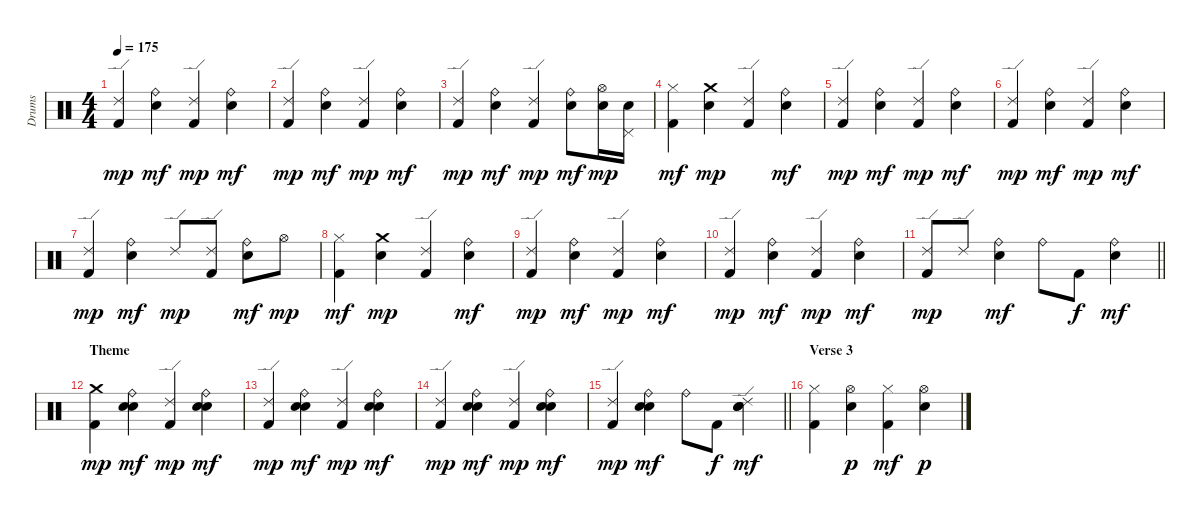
\track ("Drums" "Drums") {instrument percussion}
\staff {score}
\articulation defaults
\ts (4 4)
\tempo 175
\clef neutral
\ks c
("Ride (edge) 2" "Kick (hit) 2").4{dy mp} ("Ride (bell)" "Electric Snare (hit)").4{dy mf} ("Ride (edge) 2" "Kick (hit) 2").4{dy mp} ("Ride (bell)" "Electric Snare (hit)").4{dy mf} |
("Ride (edge) 2" "Kick (hit) 2").4{dy mp} ("Ride (bell)" "Electric Snare (hit)").4{dy mf} ("Ride (edge) 2" "Kick (hit) 2").4{dy mp} ("Ride (bell)" "Electric Snare (hit)").4{dy mf} |
("Ride (edge) 2" "Kick (hit) 2").4{dy mp} ("Ride (bell)" "Electric Snare (hit)").4{dy mf} ("Ride (edge) 2" "Kick (hit) 2").4{dy mp} ("Ride (bell)" "Electric Snare (hit)").8{dy mf} ("Hi-Hat (open)" "Electric Snare (hit)").16{dy mp} ("Pedal Hi-Hat (hit)" "Electric Snare (hit)").16 |
("Hi-Hat (closed)" "Kick (hit) 2").4{dy mf} ("Crash medium (hit)" "Electric Snare (hit)").4{dy mp} ("Ride (edge) 2" "Kick (hit) 2").4 ("Ride (bell)" "Electric Snare (hit)").4{dy mf} |
("Ride (edge) 2" "Kick (hit) 2").4{dy mp} ("Ride (bell)" "Electric Snare (hit)").4{dy mf} ("Ride (edge) 2" "Kick (hit) 2").4{dy mp} ("Ride (bell)" "Electric Snare (hit)").4{dy mf} |
("Ride (edge) 2" "Kick (hit) 2").4{dy mp} ("Ride (bell)" "Electric Snare (hit)").4{dy mf} ("Ride (edge) 2" "Kick (hit) 2").4{dy mp} ("Ride (bell)" "Electric Snare (hit)").4{dy mf} |
("Ride (edge) 2" "Kick (hit) 2").4{dy mp} ("Ride (bell)" "Electric Snare (hit)").4{dy mf} "Ride (edge) 2".8{dy mp} ("Ride (edge) 2" "Kick (hit) 2").8 ("Ride (bell)" "Electric Snare (hit)").8{dy mf} "Hi-Hat (open)".8{dy mp} |
("Hi-Hat (closed)" "Kick (hit) 2").4{dy mf} ("Crash medium (hit)" "Electric Snare (hit)").4{dy mp} ("Ride (edge) 2" "Kick (hit) 2").4 ("Ride (bell)" "Electric Snare (hit)").4{dy mf} |
("Ride (edge) 2" "Kick (hit) 2").4{dy mp} ("Ride (bell)" "Electric Snare (hit)").4{dy mf} ("Ride (edge) 2" "Kick (hit) 2").4{dy mp} ("Ride (bell)" "Electric Snare (hit)").4{dy mf} |
("Ride (edge) 2" "Kick (hit) 2").4{dy mp} ("Ride (bell)" "Electric Snare (hit)").4{dy mf} ("Ride (edge) 2" "Kick (hit) 2").4{dy mp} ("Ride (bell)" "Electric Snare (hit)").4{dy mf} |
\barLineRight lightlight
("Ride (edge) 2" "Kick (hit) 2").8{dy mp} "Ride (edge) 2".8 ("Ride (bell)" "Electric Snare (hit)").4{dy mf} "Ride (bell)".8 "Kick (hit) 2".8{dy f} ("Ride (bell)" "Electric Snare (hit)").4{dy mf} |
\section ("" "Theme")
("Crash medium (hit)" "Kick (hit) 2").4{dy mp} ("Ride (bell)" "Electric Snare (hit)" "Hand Clap (hit)").4{dy mf} ("Ride (edge) 2" "Kick (hit) 2").4{dy mp} ("Ride (bell)" "Electric Snare (hit)" "Hand Clap (hit)").4{dy mf} |
("Ride (edge) 2" "Kick (hit) 2").4{dy mp} ("Ride (bell)" "Electric Snare (hit)" "Hand Clap (hit)").4{dy mf} ("Ride (edge) 2" "Kick (hit) 2").4{dy mp} ("Ride (bell)" "Electric Snare (hit)" "Hand Clap (hit)").4{dy mf} |
("Ride (edge) 2" "Kick (hit) 2").4{dy mp} ("Ride (bell)" "Electric Snare (hit)" "Hand Clap (hit)").4{dy mf} ("Ride (edge) 2" "Kick (hit) 2").4{dy mp} ("Ride (bell)" "Electric Snare (hit)" "Hand Clap (hit)").4{dy mf} |
\barLineRight lightlight
("Ride (edge) 2" "Kick (hit) 2").4{dy mp} ("Ride (bell)" "Electric Snare (hit)" "Hand Clap (hit)").4{dy mf} "Ride (bell)".8 "Kick (hit) 2".8{dy f} ("Ride (edge) 2" "Electric Snare (hit)" "Hand Clap (hit)").4{dy mf} |
\section ("" "Verse 3")
("Hi-Hat (closed)" "Kick (hit) 2").4 ("Hi-Hat (open)" "Electric Snare (hit)").4{dy p} ("Hi-Hat (closed)" "Kick (hit) 2").4{dy mf} ("Hi-Hat (open)" "Electric Snare (hit)").4{dy p}
